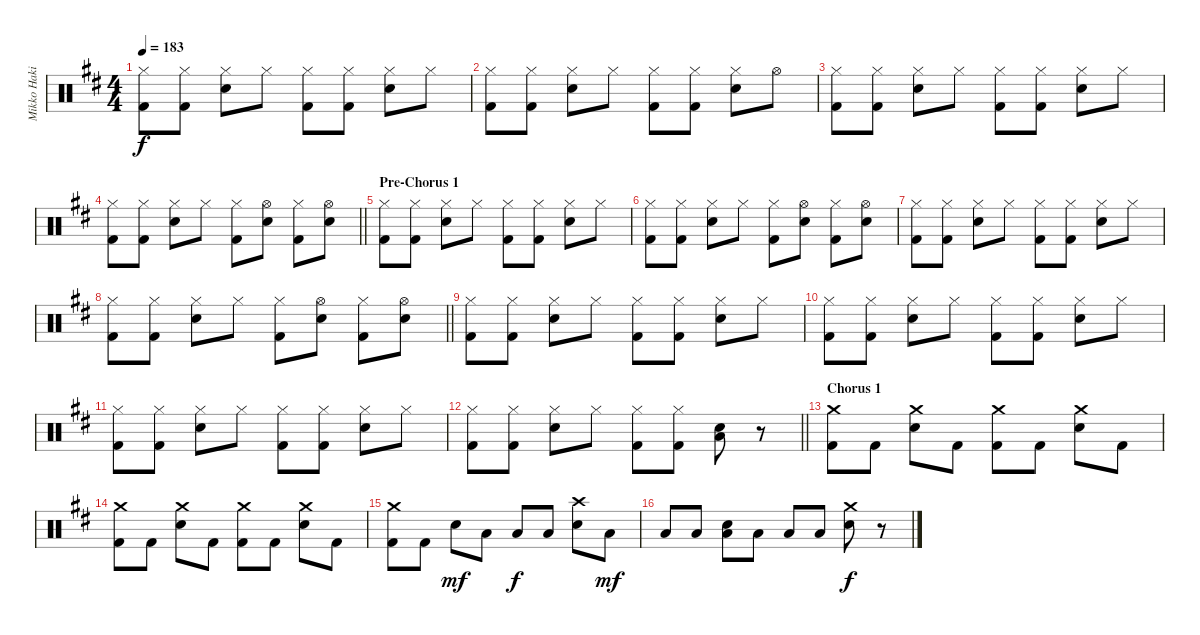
\track ("Mikko Hakila - drums" "Mikko Haki") {instrument percussion}
\staff {score}
\articulation defaults
\ts (4 4)
\tempo 183
\clef neutral
\ks bminor
("Hi-Hat (closed)" "Kick (hit) 2").8{dy f} ("Hi-Hat (closed)" "Kick (hit) 2").8 ("Hi-Hat (closed)" "Electric Snare (hit)").8 "Hi-Hat (closed)".8 ("Hi-Hat (closed)" "Kick (hit) 2").8 ("Hi-Hat (closed)" "Kick (hit) 2").8 ("Hi-Hat (closed)" "Electric Snare (hit)").8 "Hi-Hat (closed)".8 |
("Hi-Hat (closed)" "Kick (hit) 2").8 ("Hi-Hat (closed)" "Kick (hit) 2").8 ("Hi-Hat (closed)" "Electric Snare (hit)").8 "Hi-Hat (closed)".8 ("Hi-Hat (closed)" "Kick (hit) 2").8 ("Hi-Hat (closed)" "Kick (hit) 2").8 ("Hi-Hat (closed)" "Electric Snare (hit)").8 "Hi-Hat (open)".8 |
("Hi-Hat (closed)" "Kick (hit) 2").8 ("Hi-Hat (closed)" "Kick (hit) 2").8 ("Hi-Hat (closed)" "Electric Snare (hit)").8 "Hi-Hat (closed)".8 ("Hi-Hat (closed)" "Kick (hit) 2").8 ("Hi-Hat (closed)" "Kick (hit) 2").8 ("Hi-Hat (closed)" "Electric Snare (hit)").8 "Hi-Hat (closed)".8 |
\barLineRight lightlight
("Hi-Hat (closed)" "Kick (hit) 2").8 ("Hi-Hat (closed)" "Kick (hit) 2").8 ("Hi-Hat (closed)" "Electric Snare (hit)").8 "Hi-Hat (closed)".8 ("Hi-Hat (closed)" "Kick (hit) 2").8 ("Hi-Hat (open)" "Electric Snare (hit)").8 ("Hi-Hat (closed)" "Kick (hit) 2").8 ("Hi-Hat (open)" "Electric Snare (hit)").8 |
\section ("" "Pre-Chorus 1")
("Hi-Hat (closed)" "Kick (hit) 2").8 ("Hi-Hat (closed)" "Kick (hit) 2").8 ("Hi-Hat (closed)" "Electric Snare (hit)").8 "Hi-Hat (closed)".8 ("Hi-Hat (closed)" "Kick (hit) 2").8 ("Hi-Hat (closed)" "Kick (hit) 2").8 ("Hi-Hat (closed)" "Electric Snare (hit)").8 "Hi-Hat (closed)".8 |
("Hi-Hat (closed)" "Kick (hit) 2").8 ("Hi-Hat (closed)" "Kick (hit) 2").8 ("Hi-Hat (closed)" "Electric Snare (hit)").8 "Hi-Hat (closed)".8 ("Hi-Hat (closed)" "Kick (hit) 2").8 ("Hi-Hat (open)" "Electric Snare (hit)").8 ("Hi-Hat (closed)" "Kick (hit) 2").8 ("Hi-Hat (open)" "Electric Snare (hit)").8 |
("Hi-Hat (closed)" "Kick (hit) 2").8 ("Hi-Hat (closed)" "Kick (hit) 2").8 ("Hi-Hat (closed)" "Electric Snare (hit)").8 "Hi-Hat (closed)".8 ("Hi-Hat (closed)" "Kick (hit) 2").8 ("Hi-Hat (closed)" "Kick (hit) 2").8 ("Hi-Hat (closed)" "Electric Snare (hit)").8 "Hi-Hat (closed)".8 |
\barLineRight lightlight
("Hi-Hat (closed)" "Kick (hit) 2").8 ("Hi-Hat (closed)" "Kick (hit) 2").8 ("Hi-Hat (closed)" "Electric Snare (hit)").8 "Hi-Hat (closed)".8 ("Hi-Hat (closed)" "Kick (hit) 2").8 ("Hi-Hat (open)" "Electric Snare (hit)").8 ("Hi-Hat (closed)" "Kick (hit) 2").8 ("Hi-Hat (open)" "Electric Snare (hit)").8 |
("Hi-Hat (closed)" "Kick (hit) 2").8 ("Hi-Hat (closed)" "Kick (hit) 2").8 ("Hi-Hat (closed)" "Electric Snare (hit)").8 "Hi-Hat (closed)".8 ("Hi-Hat (closed)" "Kick (hit) 2").8 ("Hi-Hat (closed)" "Kick (hit) 2").8 ("Hi-Hat (closed)" "Electric Snare (hit)").8 "Hi-Hat (closed)".8 |
("Hi-Hat (closed)" "Kick (hit) 2").8 ("Hi-Hat (closed)" "Kick (hit) 2").8 ("Hi-Hat (closed)" "Electric Snare (hit)").8 "Hi-Hat (closed)".8 ("Hi-Hat (closed)" "Kick (hit) 2").8 ("Hi-Hat (closed)" "Kick (hit) 2").8 ("Hi-Hat (closed)" "Electric Snare (hit)").8 "Hi-Hat (closed)".8 |
("Hi-Hat (closed)" "Kick (hit) 2").8 ("Hi-Hat (closed)" "Kick (hit) 2").8 ("Hi-Hat (closed)" "Electric Snare (hit)").8 "Hi-Hat (closed)".8 ("Hi-Hat (closed)" "Kick (hit) 2").8 ("Hi-Hat (closed)" "Kick (hit) 2").8 ("Hi-Hat (closed)" "Electric Snare (hit)").8 "Hi-Hat (closed)".8 |
\barLineRight lightlight
("Hi-Hat (closed)" "Kick (hit) 2").8 ("Hi-Hat (closed)" "Kick (hit) 2").8 ("Hi-Hat (closed)" "Electric Snare (hit)").8 "Hi-Hat (closed)".8 ("Hi-Hat (closed)" "Kick (hit) 2").8 ("Hi-Hat (closed)" "Kick (hit) 2").8 ("Electric Snare (hit)" "Low Tom (hit)").8 r.8 |
\section ("" "Chorus 1")
("Crash medium (hit)" "Kick (hit) 2").8 "Kick (hit) 2".8 ("Crash medium (hit)" "Electric Snare (hit)").8 "Kick (hit) 2".8 ("Crash medium (hit)" "Kick (hit) 2").8 "Kick (hit) 2".8 ("Crash medium (hit)" "Electric Snare (hit)").8 "Kick (hit) 2".8 |
("Crash medium (hit)" "Kick (hit) 2").8 "Kick (hit) 2".8 ("Crash medium (hit)" "Electric Snare (hit)").8 "Kick (hit) 2".8 ("Crash medium (hit)" "Kick (hit) 2").8 "Kick (hit) 2".8 ("Crash medium (hit)" "Electric Snare (hit)").8 "Kick (hit) 2".8 |
("Crash medium (hit)" "Kick (hit) 2").8 "Kick (hit) 2".8 "Electric Snare (hit)".8{dy mf} "Low Tom (hit)".8 "Low Tom (hit)".8{dy f} "Low Tom (hit)".8 ("Crash high (hit)" "Electric Snare (hit)").8 "Low Tom (hit)".8{dy mf} |
"Low Tom (hit)".8 "Low Tom (hit)".8 ("Electric Snare (hit)" "Low Tom (hit)").8 "Low Tom (hit)".8 "Low Tom (hit)".8 "Low Tom (hit)".8 ("Crash medium (hit)" "Electric Snare (hit)").8{dy f} r.8
